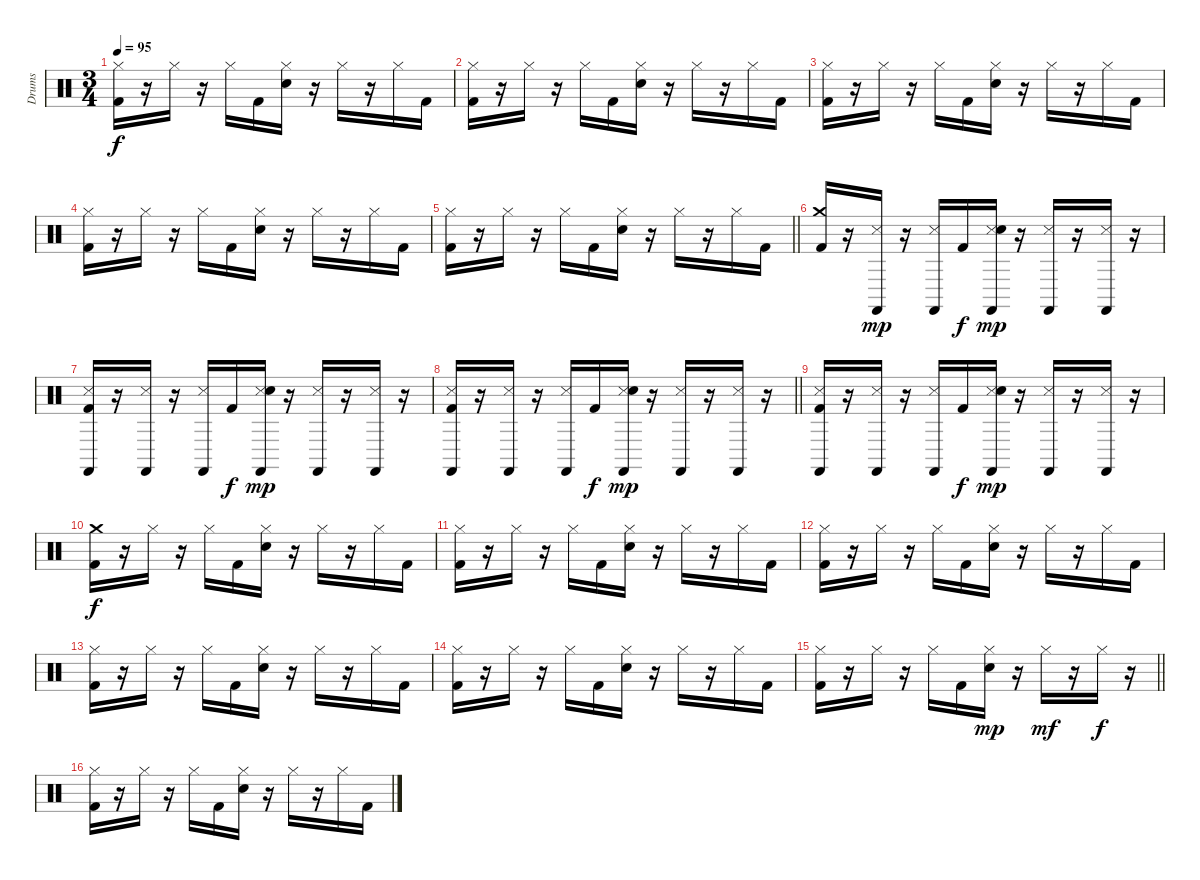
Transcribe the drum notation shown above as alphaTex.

\track ("Drums" "Drums") {instrument percussion}
\staff {score}
\articulation defaults
\ts (3 4)
\tempo 95
\clef neutral
\ks c
("Hi-Hat (closed)" "Kick (hit) 2").16{dy f} r.16 "Hi-Hat (closed)".16 r.16 "Hi-Hat (closed)".16 "Kick (hit) 2".16 ("Hi-Hat (closed)" "Electric Snare (hit)").16 r.16 "Hi-Hat (closed)".16 r.16 "Hi-Hat (closed)".16 "Kick (hit) 2".16 |
("Hi-Hat (closed)" "Kick (hit) 2").16 r.16 "Hi-Hat (closed)".16 r.16 "Hi-Hat (closed)".16 "Kick (hit) 2".16 ("Hi-Hat (closed)" "Electric Snare (hit)").16 r.16 "Hi-Hat (closed)".16 r.16 "Hi-Hat (closed)".16 "Kick (hit) 2".16 |
("Hi-Hat (closed)" "Kick (hit) 2").16 r.16 "Hi-Hat (closed)".16 r.16 "Hi-Hat (closed)".16 "Kick (hit) 2".16 ("Hi-Hat (closed)" "Electric Snare (hit)").16 r.16 "Hi-Hat (closed)".16 r.16 "Hi-Hat (closed)".16 "Kick (hit) 2".16 |
("Hi-Hat (closed)" "Kick (hit) 2").16 r.16 "Hi-Hat (closed)".16 r.16 "Hi-Hat (closed)".16 "Kick (hit) 2".16 ("Hi-Hat (closed)" "Electric Snare (hit)").16 r.16 "Hi-Hat (closed)".16 r.16 "Hi-Hat (closed)".16 "Kick (hit) 2".16 |
\barLineRight lightlight
("Hi-Hat (closed)" "Kick (hit) 2").16 r.16 "Hi-Hat (closed)".16 r.16 "Hi-Hat (closed)".16 "Kick (hit) 2".16 ("Hi-Hat (closed)" "Electric Snare (hit)").16 r.16 "Hi-Hat (closed)".16 r.16 "Hi-Hat (closed)".16 "Kick (hit) 2".16 |
\section ("" "")
("Crash medium (hit)" "Kick (hit) 2").16 r.16 ("Metronome (hit)" "Castanets (hit)").16{dy mp} r.16 ("Metronome (hit)" "Castanets (hit)").16 "Kick (hit) 2".16{dy f} ("Metronome (hit)" "Castanets (hit)" "Electric Snare (hit)").16{dy mp} r.16 ("Metronome (hit)" "Castanets (hit)").16 r.16 ("Metronome (hit)" "Castanets (hit)").16 r.16 |
("Metronome (hit)" "Castanets (hit)" "Kick (hit) 2").16 r.16 ("Metronome (hit)" "Castanets (hit)").16 r.16 ("Metronome (hit)" "Castanets (hit)").16 "Kick (hit) 2".16{dy f} ("Metronome (hit)" "Castanets (hit)" "Electric Snare (hit)").16{dy mp} r.16 ("Metronome (hit)" "Castanets (hit)").16 r.16 ("Metronome (hit)" "Castanets (hit)").16 r.16 |
\barLineRight lightlight
("Metronome (hit)" "Castanets (hit)" "Kick (hit) 2").16 r.16 ("Metronome (hit)" "Castanets (hit)").16 r.16 ("Metronome (hit)" "Castanets (hit)").16 "Kick (hit) 2".16{dy f} ("Metronome (hit)" "Castanets (hit)" "Electric Snare (hit)").16{dy mp} r.16 ("Metronome (hit)" "Castanets (hit)").16 r.16 ("Metronome (hit)" "Castanets (hit)").16 r.16 |
("Metronome (hit)" "Castanets (hit)" "Kick (hit) 2").16 r.16 ("Metronome (hit)" "Castanets (hit)").16 r.16 ("Metronome (hit)" "Castanets (hit)").16 "Kick (hit) 2".16{dy f} ("Metronome (hit)" "Castanets (hit)" "Electric Snare (hit)").16{dy mp} r.16 ("Metronome (hit)" "Castanets (hit)").16 r.16 ("Metronome (hit)" "Castanets (hit)").16 r.16 |
("Crash medium (hit)" "Kick (hit) 2").16{dy f} r.16 "Hi-Hat (closed)".16 r.16 "Hi-Hat (closed)".16 "Kick (hit) 2".16 ("Hi-Hat (closed)" "Electric Snare (hit)").16 r.16 "Hi-Hat (closed)".16 r.16 "Hi-Hat (closed)".16 "Kick (hit) 2".16 |
("Hi-Hat (closed)" "Kick (hit) 2").16 r.16 "Hi-Hat (closed)".16 r.16 "Hi-Hat (closed)".16 "Kick (hit) 2".16 ("Hi-Hat (closed)" "Electric Snare (hit)").16 r.16 "Hi-Hat (closed)".16 r.16 "Hi-Hat (closed)".16 "Kick (hit) 2".16 |
("Hi-Hat (closed)" "Kick (hit) 2").16 r.16 "Hi-Hat (closed)".16 r.16 "Hi-Hat (closed)".16 "Kick (hit) 2".16 ("Hi-Hat (closed)" "Electric Snare (hit)").16 r.16 "Hi-Hat (closed)".16 r.16 "Hi-Hat (closed)".16 "Kick (hit) 2".16 |
("Hi-Hat (closed)" "Kick (hit) 2").16 r.16 "Hi-Hat (closed)".16 r.16 "Hi-Hat (closed)".16 "Kick (hit) 2".16 ("Hi-Hat (closed)" "Electric Snare (hit)").16 r.16 "Hi-Hat (closed)".16 r.16 "Hi-Hat (closed)".16 "Kick (hit) 2".16 |
("Hi-Hat (closed)" "Kick (hit) 2").16 r.16 "Hi-Hat (closed)".16 r.16 "Hi-Hat (closed)".16 "Kick (hit) 2".16 ("Hi-Hat (closed)" "Electric Snare (hit)").16 r.16 "Hi-Hat (closed)".16 r.16 "Hi-Hat (closed)".16 "Kick (hit) 2".16 |
\barLineRight lightlight
("Hi-Hat (closed)" "Kick (hit) 2").16 r.16 "Hi-Hat (closed)".16 r.16 "Hi-Hat (closed)".16 "Kick (hit) 2".16 ("Hi-Hat (closed)" "Electric Snare (hit)").16{dy mp} r.16 "Hi-Hat (closed)".16{dy mf} r.16 "Hi-Hat (closed)".16{dy f} r.16 |
("Hi-Hat (closed)" "Kick (hit) 2").16 r.16 "Hi-Hat (closed)".16 r.16 "Hi-Hat (closed)".16 "Kick (hit) 2".16 ("Hi-Hat (closed)" "Electric Snare (hit)").16 r.16 "Hi-Hat (closed)".16 r.16 "Hi-Hat (closed)".16 "Kick (hit) 2".16
